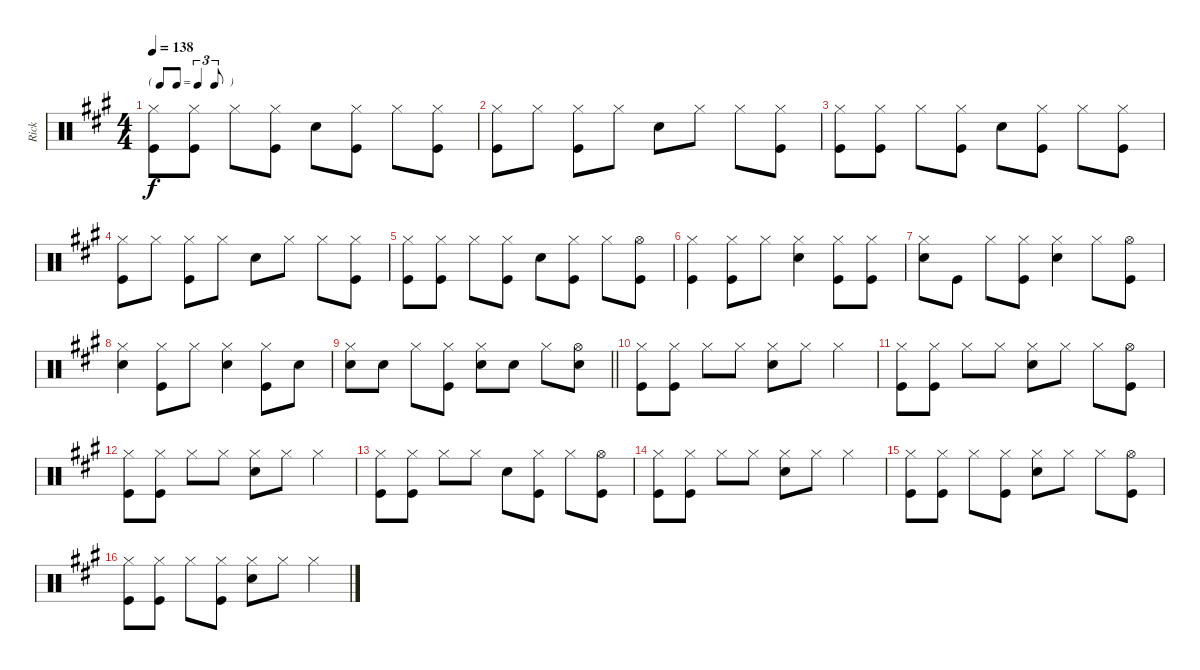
\track ("Rick" "Rick") {instrument percussion}
\staff {score}
\articulation defaults
\ts (4 4)
\tf triplet8th
\tempo 138
\clef neutral
\ks a
("Hi-Hat (closed)" "Kick (hit)").8{dy f} ("Hi-Hat (closed)" "Kick (hit)").8 "Hi-Hat (closed)".8 ("Hi-Hat (closed)" "Kick (hit)").8 "Snare (hit) 2".8 ("Hi-Hat (closed)" "Kick (hit)").8 "Hi-Hat (closed)".8 ("Hi-Hat (closed)" "Kick (hit)").8 |
("Hi-Hat (closed)" "Kick (hit)").8 "Hi-Hat (closed)".8 ("Hi-Hat (closed)" "Kick (hit)").8 "Hi-Hat (closed)".8 "Snare (hit) 2".8 "Hi-Hat (closed)".8 "Hi-Hat (closed)".8 ("Hi-Hat (closed)" "Kick (hit)").8 |
("Hi-Hat (closed)" "Kick (hit)").8 ("Hi-Hat (closed)" "Kick (hit)").8 "Hi-Hat (closed)".8 ("Hi-Hat (closed)" "Kick (hit)").8 "Snare (hit) 2".8 ("Hi-Hat (closed)" "Kick (hit)").8 "Hi-Hat (closed)".8 ("Hi-Hat (closed)" "Kick (hit)").8 |
("Hi-Hat (closed)" "Kick (hit)").8 "Hi-Hat (closed)".8 ("Hi-Hat (closed)" "Kick (hit)").8 "Hi-Hat (closed)".8 "Snare (hit) 2".8 "Hi-Hat (closed)".8 "Hi-Hat (closed)".8 ("Hi-Hat (closed)" "Kick (hit)").8 |
("Hi-Hat (closed)" "Kick (hit)").8 ("Hi-Hat (closed)" "Kick (hit)").8 "Hi-Hat (closed)".8 ("Hi-Hat (closed)" "Kick (hit)").8 "Snare (hit) 2".8 ("Hi-Hat (closed)" "Kick (hit)").8 "Hi-Hat (closed)".8 ("Hi-Hat (open)" "Kick (hit)").8 |
("Hi-Hat (closed)" "Kick (hit)").4 ("Hi-Hat (closed)" "Kick (hit)").8 "Hi-Hat (closed)".8 ("Hi-Hat (closed)" "Snare (hit) 2").4 ("Hi-Hat (closed)" "Kick (hit)").8 ("Hi-Hat (closed)" "Kick (hit)").8 |
("Hi-Hat (closed)" "Snare (hit) 2").8 "Kick (hit)".8 "Hi-Hat (closed)".8 ("Hi-Hat (closed)" "Kick (hit)").8 ("Hi-Hat (closed)" "Snare (hit) 2").4 "Hi-Hat (closed)".8 ("Hi-Hat (open)" "Kick (hit)").8 |
("Hi-Hat (closed)" "Snare (hit) 2").4 ("Hi-Hat (closed)" "Kick (hit)").8 "Hi-Hat (closed)".8 ("Hi-Hat (closed)" "Snare (hit) 2").4 ("Hi-Hat (closed)" "Kick (hit)").8 "Snare (hit) 2".8 |
\barLineRight lightlight
("Hi-Hat (closed)" "Snare (hit) 2").8 "Snare (hit) 2".8 "Hi-Hat (closed)".8 ("Hi-Hat (closed)" "Kick (hit)").8 ("Hi-Hat (closed)" "Snare (hit) 2").8 "Snare (hit) 2".8 "Hi-Hat (closed)".8 ("Hi-Hat (open)" "Snare (hit) 2").8 |
("Hi-Hat (closed)" "Kick (hit)").8 ("Hi-Hat (closed)" "Kick (hit)").8 "Hi-Hat (closed)".8 "Hi-Hat (closed)".8 ("Hi-Hat (closed)" "Snare (hit) 2").8 "Hi-Hat (closed)".8 "Hi-Hat (closed)".4 |
("Hi-Hat (closed)" "Kick (hit)").8 ("Hi-Hat (closed)" "Kick (hit)").8 "Hi-Hat (closed)".8 "Hi-Hat (closed)".8 ("Hi-Hat (closed)" "Snare (hit) 2").8 "Hi-Hat (closed)".8 "Hi-Hat (closed)".8 ("Hi-Hat (open)" "Kick (hit)").8 |
("Hi-Hat (closed)" "Kick (hit)").8 ("Hi-Hat (closed)" "Kick (hit)").8 "Hi-Hat (closed)".8 "Hi-Hat (closed)".8 ("Hi-Hat (closed)" "Snare (hit) 2").8 "Hi-Hat (closed)".8 "Hi-Hat (closed)".4 |
("Hi-Hat (closed)" "Kick (hit)").8 ("Hi-Hat (closed)" "Kick (hit)").8 "Hi-Hat (closed)".8 "Hi-Hat (closed)".8 "Snare (hit) 2".8 ("Hi-Hat (closed)" "Kick (hit)").8 "Hi-Hat (closed)".8 ("Hi-Hat (open)" "Kick (hit)").8 |
("Hi-Hat (closed)" "Kick (hit)").8 ("Hi-Hat (closed)" "Kick (hit)").8 "Hi-Hat (closed)".8 "Hi-Hat (closed)".8 ("Hi-Hat (closed)" "Snare (hit) 2").8 "Hi-Hat (closed)".8 "Hi-Hat (closed)".4 |
("Hi-Hat (closed)" "Kick (hit)").8 ("Hi-Hat (closed)" "Kick (hit)").8 "Hi-Hat (closed)".8 ("Hi-Hat (closed)" "Kick (hit)").8 ("Hi-Hat (closed)" "Snare (hit) 2").8 "Hi-Hat (closed)".8 "Hi-Hat (closed)".8 ("Hi-Hat (open)" "Kick (hit)").8 |
("Hi-Hat (closed)" "Kick (hit)").8 ("Hi-Hat (closed)" "Kick (hit)").8 "Hi-Hat (closed)".8 ("Hi-Hat (closed)" "Kick (hit)").8 ("Hi-Hat (closed)" "Snare (hit) 2").8 "Hi-Hat (closed)".8 "Hi-Hat (closed)".4
